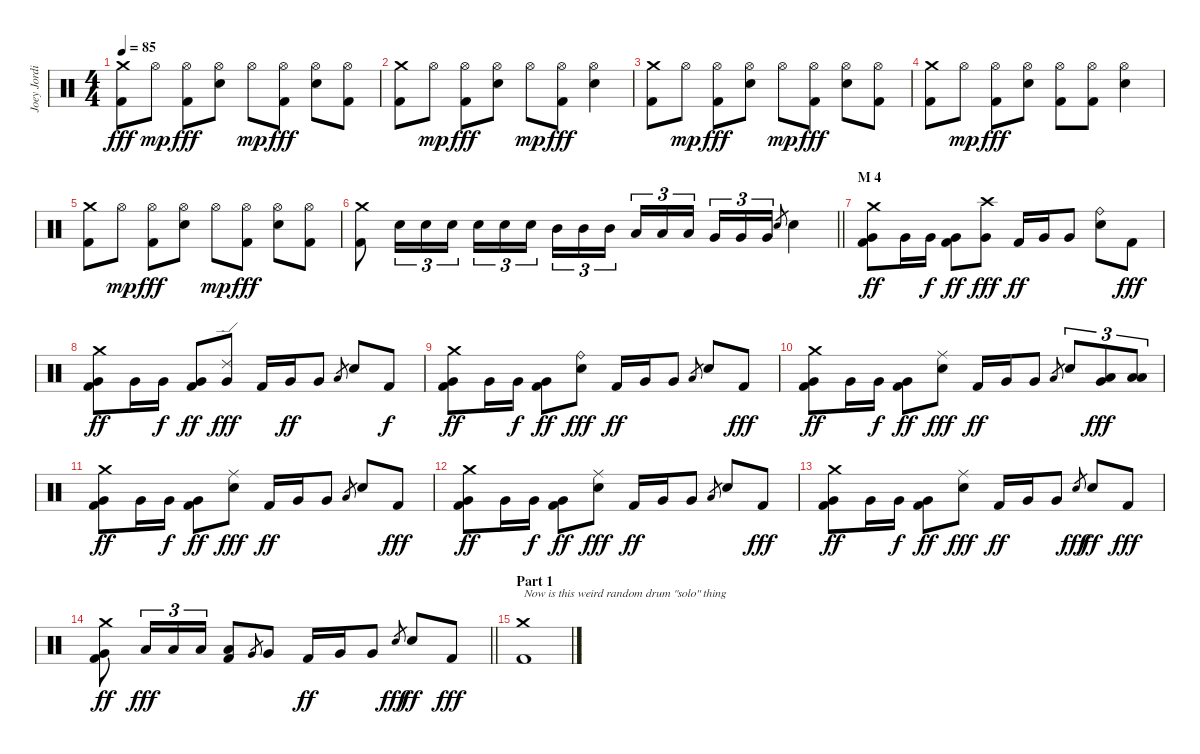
\track ("Joey Jordison" "Joey Jordi") {instrument percussion}
\staff {score}
\articulation defaults
\ts (4 4)
\tempo 85
\clef neutral
\ks c
("Crash medium (hit)" "Kick (hit) 2").8{dy fff} "Hi-Hat (open)".8{dy mp} ("Hi-Hat (open)" "Kick (hit) 2").8{dy fff} ("Hi-Hat (open)" "Electric Snare (hit)").8 "Hi-Hat (open)".8{dy mp} ("Hi-Hat (open)" "Kick (hit) 2").8{dy fff} ("Hi-Hat (open)" "Electric Snare (hit)").8 ("Hi-Hat (open)" "Kick (hit) 2").8 |
("Crash medium (hit)" "Kick (hit) 2").8 "Hi-Hat (open)".8{dy mp} ("Hi-Hat (open)" "Kick (hit) 2").8{dy fff} ("Hi-Hat (open)" "Electric Snare (hit)").8 "Hi-Hat (open)".8{dy mp} ("Hi-Hat (open)" "Kick (hit) 2").8{dy fff} ("Hi-Hat (open)" "Electric Snare (hit)").4 |
("Crash medium (hit)" "Kick (hit) 2").8 "Hi-Hat (open)".8{dy mp} ("Hi-Hat (open)" "Kick (hit) 2").8{dy fff} ("Hi-Hat (open)" "Electric Snare (hit)").8 "Hi-Hat (open)".8{dy mp} ("Hi-Hat (open)" "Kick (hit) 2").8{dy fff} ("Hi-Hat (open)" "Electric Snare (hit)").8 ("Hi-Hat (open)" "Kick (hit) 2").8 |
("Crash medium (hit)" "Kick (hit) 2").8 "Hi-Hat (open)".8{dy mp} ("Hi-Hat (open)" "Kick (hit) 2").8{dy fff} ("Hi-Hat (open)" "Electric Snare (hit)").8 ("Hi-Hat (open)" "Kick (hit) 2").8 ("Hi-Hat (open)" "Kick (hit) 2").8 ("Hi-Hat (open)" "Electric Snare (hit)").4 |
("Crash medium (hit)" "Kick (hit) 2").8 "Hi-Hat (open)".8{dy mp} ("Hi-Hat (open)" "Kick (hit) 2").8{dy fff} ("Hi-Hat (open)" "Electric Snare (hit)").8 "Hi-Hat (open)".8{dy mp} ("Hi-Hat (open)" "Kick (hit) 2").8{dy fff} ("Hi-Hat (open)" "Electric Snare (hit)").8 ("Hi-Hat (open)" "Kick (hit) 2").8 |
\barLineRight lightlight
("Crash medium (hit)" "Kick (hit) 2").8 "Electric Snare (hit)".16{tu (3 2)} "Electric Snare (hit)".16{tu (3 2)} "Electric Snare (hit)".16{tu (3 2)} "Electric Snare (hit)".16{tu (3 2)} "Electric Snare (hit)".16{tu (3 2)} "Electric Snare (hit)".16{tu (3 2) beam splitsecondary} "Mid Tom (hit)".16{tu (3 2)} "Mid Tom (hit)".16{tu (3 2)} "Mid Tom (hit)".16{tu (3 2)} "Low Tom (hit)".16{tu (3 2)} "Low Tom (hit)".16{tu (3 2)} "Low Tom (hit)".16{tu (3 2) beam splitsecondary} "Very Low Tom (hit)".16{tu (3 2)} "Very Low Tom (hit)".16{tu (3 2)} "Very Low Tom (hit)".16{tu (3 2)} "Electric Snare (hit)".8{gr} "Electric Snare (hit)".4 |
\section ("" "M 4")
("Crash medium (hit)" "Very Low Tom (hit)" "Kick (hit) 2").8{dy ff} "Very Low Tom (hit)".16 "Very Low Tom (hit)".16{dy f} ("Very Low Tom (hit)" "Kick (hit) 2").8{dy ff} ("Crash high (hit)" "Very Low Tom (hit)").8{dy fff} "Kick (hit) 2".16{dy ff} "Very Low Tom (hit)".16 "Very Low Tom (hit)".8 ("Ride (bell)" "Electric Snare (hit)").8 "Kick (hit) 2".8{dy fff} |
("Crash medium (hit)" "Very Low Tom (hit)" "Kick (hit) 2").8{dy ff} "Very Low Tom (hit)".16 "Very Low Tom (hit)".16{dy f} ("Very Low Tom (hit)" "Kick (hit) 2").8{dy ff} ("Ride (edge) 2" "Very Low Tom (hit)").8{dy fff} "Kick (hit) 2".16 "Very Low Tom (hit)".16{dy ff} "Very Low Tom (hit)".8 "Low Tom (hit)".8{gr} "Electric Snare (hit)".8 "Kick (hit) 2".8{dy f} |
("Crash medium (hit)" "Very Low Tom (hit)" "Kick (hit) 2").8{dy ff} "Very Low Tom (hit)".16 "Very Low Tom (hit)".16{dy f} ("Very Low Tom (hit)" "Kick (hit) 2").8{dy ff} ("Ride (bell)" "Electric Snare (hit)").8{dy fff} "Kick (hit) 2".16{dy ff} "Very Low Tom (hit)".16 "Very Low Tom (hit)".8 "Low Tom (hit)".8{gr} "Electric Snare (hit)".8 "Kick (hit) 2".8{dy fff} |
("Crash medium (hit)" "Very Low Tom (hit)" "Kick (hit) 2").8{dy ff} "Very Low Tom (hit)".16 "Very Low Tom (hit)".16{dy f} ("Very Low Tom (hit)" "Kick (hit) 2").8{dy ff} ("Ride (middle)" "Electric Snare (hit)").8{dy fff} "Kick (hit) 2".16{dy ff} "Very Low Tom (hit)".16 "Very Low Tom (hit)".8 "Low Tom (hit)".8{gr} "Electric Snare (hit)".8{tu (3 2)} ("Very Low Tom (hit)" "Low Floor Tom (hit)").8{tu (3 2) dy fff} ("Low Floor Tom (hit)" "Low Floor Tom (hit)").8{tu (3 2)} |
("Crash medium (hit)" "Very Low Tom (hit)" "Kick (hit) 2").8{dy ff} "Very Low Tom (hit)".16 "Very Low Tom (hit)".16{dy f} ("Very Low Tom (hit)" "Kick (hit) 2").8{dy ff} ("Ride (middle)" "Electric Snare (hit)").8{dy fff} "Kick (hit) 2".16{dy ff} "Very Low Tom (hit)".16 "Very Low Tom (hit)".8 "Low Tom (hit)".8{gr} "Electric Snare (hit)".8 "Kick (hit) 2".8{dy fff} |
("Crash medium (hit)" "Very Low Tom (hit)" "Kick (hit) 2").8{dy ff} "Very Low Tom (hit)".16 "Very Low Tom (hit)".16{dy f} ("Very Low Tom (hit)" "Kick (hit) 2").8{dy ff} ("Ride (middle)" "Electric Snare (hit)").8{dy fff} "Kick (hit) 2".16{dy ff} "Very Low Tom (hit)".16 "Very Low Tom (hit)".8 "Low Tom (hit)".8{gr} "Electric Snare (hit)".8 "Kick (hit) 2".8{dy fff} |
("Crash medium (hit)" "Very Low Tom (hit)" "Kick (hit) 2").8{dy ff} "Very Low Tom (hit)".16 "Very Low Tom (hit)".16{dy f} ("Very Low Tom (hit)" "Kick (hit) 2").8{dy ff} ("Ride (middle)" "Electric Snare (hit)").8{dy fff} "Kick (hit) 2".16{dy ff} "Very Low Tom (hit)".16 "Very Low Tom (hit)".8 "Electric Snare (hit)".8{gr dy fff} "Electric Snare (hit)".8{dy ff} "Kick (hit) 2".8{dy fff} |
\barLineRight lightlight
("Crash medium (hit)" "Very Low Tom (hit)" "Kick (hit) 2").8{dy ff} "Low Tom (hit)".16{tu (3 2) dy fff} "Low Tom (hit)".16{tu (3 2)} "Low Tom (hit)".16{tu (3 2)} ("Low Tom (hit)" "Kick (hit) 2").8 "Very Low Tom (hit)".8{gr} "Very Low Tom (hit)".8 "Kick (hit) 2".16{dy ff} "Very Low Tom (hit)".16 "Very Low Tom (hit)".8 "Electric Snare (hit)".8{gr dy fff} "Electric Snare (hit)".8{dy ff} "Kick (hit) 2".8{dy fff} |
\section ("" "Part 1")
("Crash medium (hit)" "Kick (hit) 2").1{txt "Now is this weird random drum \"solo\" thing "}
